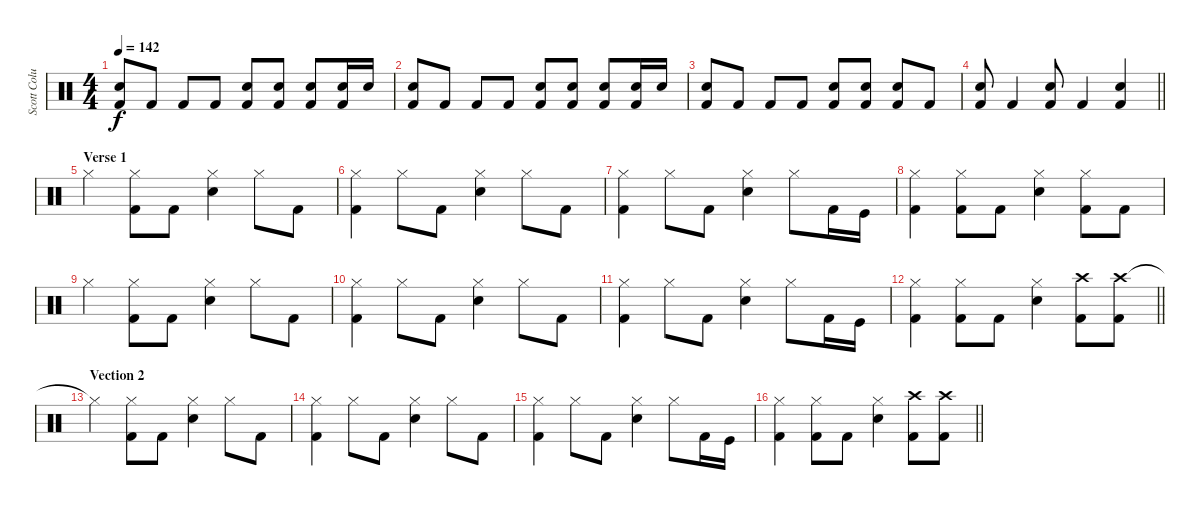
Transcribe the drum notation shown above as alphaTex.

\track ("Scott Columbus" "Scott Colu") {instrument percussion}
\staff {score}
\articulation defaults
\ts (4 4)
\tempo 142
\clef neutral
\ks c
("Snare (hit) 2" "Kick (hit) 2").8{dy f} "Kick (hit) 2".8 "Kick (hit) 2".8 "Kick (hit) 2".8 ("Snare (hit) 2" "Kick (hit) 2").8 ("Snare (hit) 2" "Kick (hit) 2").8 ("Snare (hit) 2" "Kick (hit) 2").8 ("Snare (hit) 2" "Kick (hit) 2").16 "Snare (hit) 2".16 |
("Snare (hit) 2" "Kick (hit) 2").8 "Kick (hit) 2".8 "Kick (hit) 2".8 "Kick (hit) 2".8 ("Snare (hit) 2" "Kick (hit) 2").8 ("Snare (hit) 2" "Kick (hit) 2").8 ("Snare (hit) 2" "Kick (hit) 2").8 ("Snare (hit) 2" "Kick (hit) 2").16 "Snare (hit) 2".16 |
("Snare (hit) 2" "Kick (hit) 2").8 "Kick (hit) 2".8 "Kick (hit) 2".8 "Kick (hit) 2".8 ("Snare (hit) 2" "Kick (hit) 2").8 ("Snare (hit) 2" "Kick (hit) 2").8 ("Snare (hit) 2" "Kick (hit) 2").8 "Kick (hit) 2".8 |
\barLineRight lightlight
("Snare (hit) 2" "Kick (hit) 2").8 "Kick (hit) 2".4 ("Snare (hit) 2" "Kick (hit) 2").8 "Kick (hit) 2".4 ("Snare (hit) 2" "Kick (hit) 2").4 |
\section ("" "Verse 1")
"Hi-Hat (closed)".4 ("Hi-Hat (closed)" "Kick (hit) 2").8 "Kick (hit) 2".8 ("Hi-Hat (closed)" "Snare (hit) 2").4 "Hi-Hat (closed)".8 "Kick (hit) 2".8 |
("Hi-Hat (closed)" "Kick (hit) 2").4 "Hi-Hat (closed)".8 "Kick (hit) 2".8 ("Hi-Hat (closed)" "Snare (hit) 2").4 "Hi-Hat (closed)".8 "Kick (hit) 2".8 |
("Hi-Hat (closed)" "Kick (hit) 2").4 "Hi-Hat (closed)".8 "Kick (hit) 2".8 ("Hi-Hat (closed)" "Snare (hit) 2").4 "Hi-Hat (closed)".8 "Kick (hit) 2".16 "Kick (hit)".16 |
("Hi-Hat (closed)" "Kick (hit) 2").4 ("Hi-Hat (closed)" "Kick (hit) 2").8 "Kick (hit) 2".8 ("Hi-Hat (closed)" "Snare (hit) 2").4 ("Hi-Hat (closed)" "Kick (hit) 2").8 "Kick (hit) 2".8 |
"Hi-Hat (closed)".4 ("Hi-Hat (closed)" "Kick (hit) 2").8 "Kick (hit) 2".8 ("Hi-Hat (closed)" "Snare (hit) 2").4 "Hi-Hat (closed)".8 "Kick (hit) 2".8 |
("Hi-Hat (closed)" "Kick (hit) 2").4 "Hi-Hat (closed)".8 "Kick (hit) 2".8 ("Hi-Hat (closed)" "Snare (hit) 2").4 "Hi-Hat (closed)".8 "Kick (hit) 2".8 |
("Hi-Hat (closed)" "Kick (hit) 2").4 "Hi-Hat (closed)".8 "Kick (hit) 2".8 ("Hi-Hat (closed)" "Snare (hit) 2").4 "Hi-Hat (closed)".8 "Kick (hit) 2".16 "Kick (hit)".16 |
\barLineRight lightlight
("Hi-Hat (closed)" "Kick (hit) 2").4 ("Hi-Hat (closed)" "Kick (hit) 2").8 "Kick (hit) 2".8 ("Hi-Hat (closed)" "Snare (hit) 2").4 ("Crash high (hit)" "Kick (hit) 2").8 ("Crash high (hit)" "Kick (hit) 2").8 |
\section ("" "Vection 2")
"Hi-Hat (closed)"{t}.4 ("Hi-Hat (closed)" "Kick (hit) 2").8 "Kick (hit) 2".8 ("Hi-Hat (closed)" "Snare (hit) 2").4 "Hi-Hat (closed)".8 "Kick (hit) 2".8 |
("Hi-Hat (closed)" "Kick (hit) 2").4 "Hi-Hat (closed)".8 "Kick (hit) 2".8 ("Hi-Hat (closed)" "Snare (hit) 2").4 "Hi-Hat (closed)".8 "Kick (hit) 2".8 |
("Hi-Hat (closed)" "Kick (hit) 2").4 "Hi-Hat (closed)".8 "Kick (hit) 2".8 ("Hi-Hat (closed)" "Snare (hit) 2").4 "Hi-Hat (closed)".8 "Kick (hit) 2".16 "Kick (hit)".16 |
\barLineRight lightlight
("Hi-Hat (closed)" "Kick (hit) 2").4 ("Hi-Hat (closed)" "Kick (hit) 2").8 "Kick (hit) 2".8 ("Hi-Hat (closed)" "Snare (hit) 2").4 ("Crash high (hit)" "Kick (hit) 2").8 ("Crash high (hit)" "Kick (hit) 2").8
